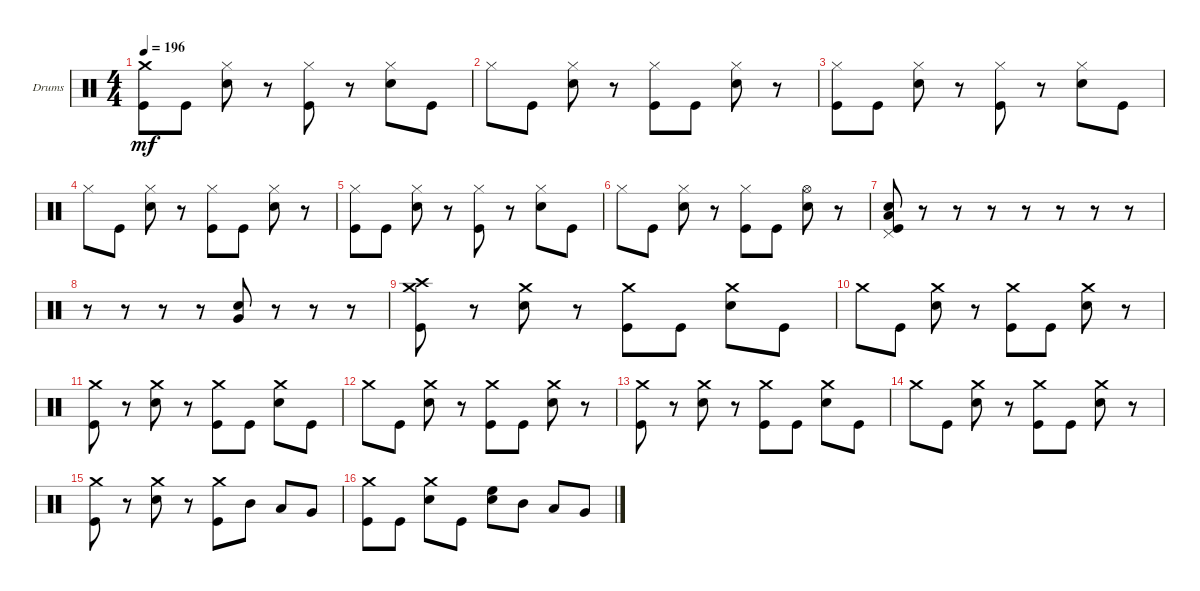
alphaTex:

\defaultSystemsLayout 4
\bracketExtendMode groupsimilarinstruments
\firstSystemTrackNameOrientation horizontal
\otherSystemsTrackNameOrientation horizontal
\track ("Drumkit" "Drums") {instrument percussion}
\staff {score}
\articulation defaults
\ts (4 4)
\tempo 196
\clef neutral
\ks c
("Kick (hit)" "Crash medium (hit)").8{dy mf} "Kick (hit)".8 ("Snare (hit) 2" "Hi-Hat (closed)").8 r.8 ("Kick (hit)" "Hi-Hat (closed)").8 r.8 ("Snare (hit) 2" "Hi-Hat (closed)").8 "Kick (hit)".8 |
"Hi-Hat (closed)".8 "Kick (hit)".8 ("Snare (hit) 2" "Hi-Hat (closed)").8 r.8 ("Kick (hit)" "Hi-Hat (closed)").8 "Kick (hit)".8 ("Snare (hit) 2" "Hi-Hat (closed)").8 r.8 |
("Kick (hit)" "Hi-Hat (closed)").8 "Kick (hit)".8 ("Snare (hit) 2" "Hi-Hat (closed)").8 r.8 ("Kick (hit)" "Hi-Hat (closed)").8 r.8 ("Snare (hit) 2" "Hi-Hat (closed)").8 "Kick (hit)".8 |
"Hi-Hat (closed)".8 "Kick (hit)".8 ("Snare (hit) 2" "Hi-Hat (closed)").8 r.8 ("Kick (hit)" "Hi-Hat (closed)").8 "Kick (hit)".8 ("Snare (hit) 2" "Hi-Hat (closed)").8 r.8 |
("Kick (hit)" "Hi-Hat (closed)").8 "Kick (hit)".8 ("Snare (hit) 2" "Hi-Hat (closed)").8 r.8 ("Kick (hit)" "Hi-Hat (closed)").8 r.8 ("Snare (hit) 2" "Hi-Hat (closed)").8 "Kick (hit)".8 |
"Hi-Hat (closed)".8 "Kick (hit)".8 ("Snare (hit) 2" "Hi-Hat (closed)").8 r.8 ("Kick (hit)" "Hi-Hat (closed)").8 "Kick (hit)".8 ("Snare (hit) 2" "Hi-Hat (open)").8 r.8 |
("Kick (hit)" "Snare (hit) 2" "Low Tom (hit)" "Pedal Hi-Hat (hit)").8 r.8 r.8 r.8 r.8 r.8 r.8 r.8 |
r.8 r.8 r.8 r.8 ("Snare (hit) 2" "Very Low Tom (hit)").8 r.8 r.8 r.8 |
("Kick (hit)" "Crash medium (hit)" "Crash high (hit)").8 r.8 ("Snare (hit) 2" "Crash medium (hit)").8 r.8 ("Kick (hit)" "Crash medium (hit)").8 "Kick (hit)".8 ("Snare (hit) 2" "Crash medium (hit)").8 "Kick (hit)".8 |
"Crash medium (hit)".8 "Kick (hit)".8 ("Snare (hit) 2" "Crash medium (hit)").8 r.8 ("Kick (hit)" "Crash medium (hit)").8 "Kick (hit)".8 ("Snare (hit) 2" "Crash medium (hit)").8 r.8 |
("Kick (hit)" "Crash medium (hit)").8 r.8 ("Snare (hit) 2" "Crash medium (hit)").8 r.8 ("Kick (hit)" "Crash medium (hit)").8 "Kick (hit)".8 ("Snare (hit) 2" "Crash medium (hit)").8 "Kick (hit)".8 |
"Crash medium (hit)".8 "Kick (hit)".8 ("Snare (hit) 2" "Crash medium (hit)").8 r.8 ("Kick (hit)" "Crash medium (hit)").8 "Kick (hit)".8 ("Snare (hit) 2" "Crash medium (hit)").8 r.8 |
("Kick (hit)" "Crash medium (hit)").8 r.8 ("Snare (hit) 2" "Crash medium (hit)").8 r.8 ("Kick (hit)" "Crash medium (hit)").8 "Kick (hit)".8 ("Snare (hit) 2" "Crash medium (hit)").8 "Kick (hit)".8 |
"Crash medium (hit)".8 "Kick (hit)".8 ("Snare (hit) 2" "Crash medium (hit)").8 r.8 ("Kick (hit)" "Crash medium (hit)").8 "Kick (hit)".8 ("Snare (hit) 2" "Crash medium (hit)").8 r.8 |
("Kick (hit)" "Crash medium (hit)").8 r.8 ("Snare (hit) 2" "Crash medium (hit)").8 r.8 ("Kick (hit)" "Crash medium (hit)").8 "Mid Tom (hit)".8 "Low Tom (hit)".8 "Very Low Tom (hit)".8 |
("Crash medium (hit)" "Kick (hit)").8 "Kick (hit)".8 ("Snare (hit) 2" "Crash medium (hit)").8 "Kick (hit)".8 ("Snare (hit) 2" "High Floor Tom (hit)").8 "Mid Tom (hit)".8 "Low Tom (hit)".8 "Very Low Tom (hit)".8
